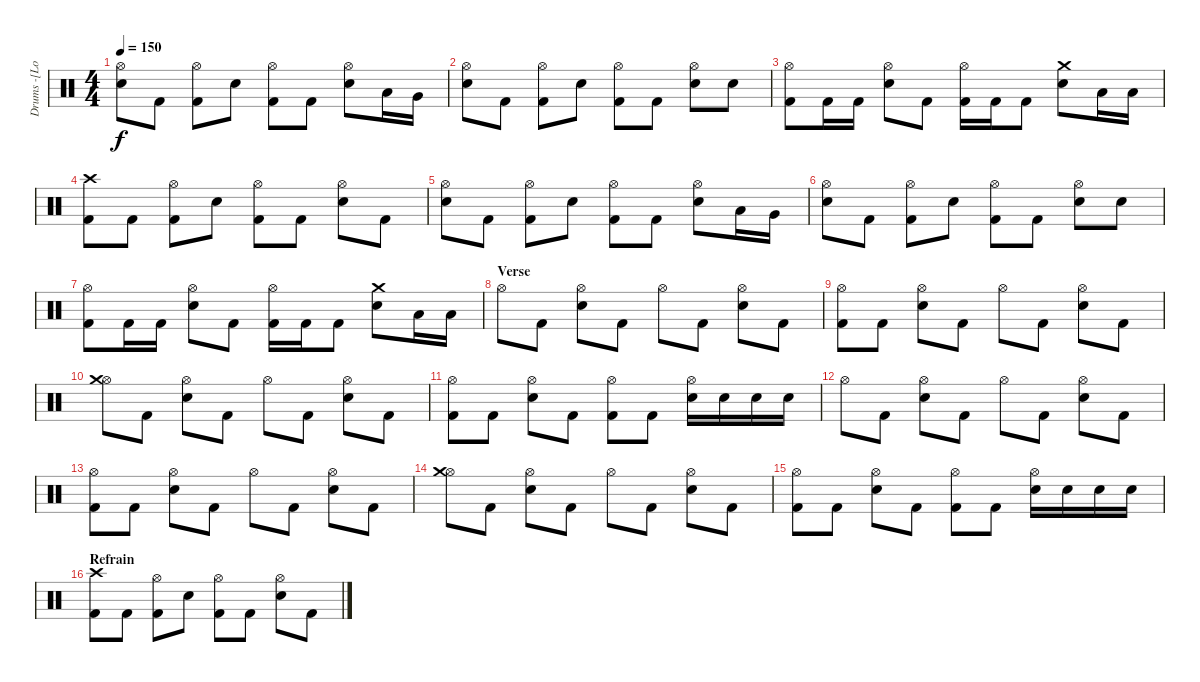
\track ("Drums -[Lorenz]-" "Drums -[Lo") {instrument percussion}
\staff {score}
\articulation defaults
\ts (4 4)
\tempo 150
\clef neutral
\ks c
("Hi-Hat (open)" "Electric Snare (hit)").8{dy f} "Kick (hit) 2".8 ("Hi-Hat (open)" "Kick (hit) 2").8 "Electric Snare (hit)".8 ("Hi-Hat (open)" "Kick (hit) 2").8 "Kick (hit) 2".8 ("Hi-Hat (open)" "Electric Snare (hit)").8 "Low Tom (hit)".16 "Very Low Tom (hit)".16 |
("Hi-Hat (open)" "Electric Snare (hit)").8 "Kick (hit) 2".8 ("Hi-Hat (open)" "Kick (hit) 2").8 "Electric Snare (hit)".8 ("Hi-Hat (open)" "Kick (hit) 2").8 "Kick (hit) 2".8 ("Hi-Hat (open)" "Electric Snare (hit)").8 "Electric Snare (hit)".8 |
("Hi-Hat (open)" "Kick (hit) 2").8 "Kick (hit) 2".16 "Kick (hit) 2".16 ("Hi-Hat (open)" "Electric Snare (hit)").8 "Kick (hit) 2".8 ("Hi-Hat (open)" "Kick (hit) 2").16 "Kick (hit) 2".16 "Kick (hit) 2".8 ("Crash medium (hit)" "Electric Snare (hit)").8 "Low Tom (hit)".16 "Low Tom (hit)".16 |
("Crash high (hit)" "Kick (hit) 2").8 "Kick (hit) 2".8 ("Hi-Hat (open)" "Kick (hit) 2").8 "Electric Snare (hit)".8 ("Hi-Hat (open)" "Kick (hit) 2").8 "Kick (hit) 2".8 ("Hi-Hat (open)" "Electric Snare (hit)").8 "Kick (hit) 2".8 |
("Hi-Hat (open)" "Electric Snare (hit)").8 "Kick (hit) 2".8 ("Hi-Hat (open)" "Kick (hit) 2").8 "Electric Snare (hit)".8 ("Hi-Hat (open)" "Kick (hit) 2").8 "Kick (hit) 2".8 ("Hi-Hat (open)" "Electric Snare (hit)").8 "Low Tom (hit)".16 "Very Low Tom (hit)".16 |
("Hi-Hat (open)" "Electric Snare (hit)").8 "Kick (hit) 2".8 ("Hi-Hat (open)" "Kick (hit) 2").8 "Electric Snare (hit)".8 ("Hi-Hat (open)" "Kick (hit) 2").8 "Kick (hit) 2".8 ("Hi-Hat (open)" "Electric Snare (hit)").8 "Electric Snare (hit)".8 |
("Hi-Hat (open)" "Kick (hit) 2").8 "Kick (hit) 2".16 "Kick (hit) 2".16 ("Hi-Hat (open)" "Electric Snare (hit)").8 "Kick (hit) 2".8 ("Hi-Hat (open)" "Kick (hit) 2").16 "Kick (hit) 2".16 "Kick (hit) 2".8 ("Crash medium (hit)" "Electric Snare (hit)").8 "Low Tom (hit)".16 "Low Tom (hit)".16 |
\section ("" "Verse")
"Hi-Hat (open)".8 "Kick (hit) 2".8 ("Hi-Hat (open)" "Electric Snare (hit)").8 "Kick (hit) 2".8 "Hi-Hat (open)".8 "Kick (hit) 2".8 ("Hi-Hat (open)" "Electric Snare (hit)").8 "Kick (hit) 2".8 |
("Hi-Hat (open)" "Kick (hit) 2").8 "Kick (hit) 2".8 ("Hi-Hat (open)" "Electric Snare (hit)").8 "Kick (hit) 2".8 "Hi-Hat (open)".8 "Kick (hit) 2".8 ("Hi-Hat (open)" "Electric Snare (hit)").8 "Kick (hit) 2".8 |
("Hi-Hat (open)" "Crash medium (hit)").8 "Kick (hit) 2".8 ("Hi-Hat (open)" "Electric Snare (hit)").8 "Kick (hit) 2".8 "Hi-Hat (open)".8 "Kick (hit) 2".8 ("Hi-Hat (open)" "Electric Snare (hit)").8 "Kick (hit) 2".8 |
("Hi-Hat (open)" "Kick (hit) 2").8 "Kick (hit) 2".8 ("Hi-Hat (open)" "Electric Snare (hit)").8 "Kick (hit) 2".8 ("Hi-Hat (open)" "Kick (hit) 2").8 "Kick (hit) 2".8 ("Hi-Hat (open)" "Electric Snare (hit)").16 "Electric Snare (hit)".16 "Electric Snare (hit)".16 "Electric Snare (hit)".16 |
"Hi-Hat (open)".8 "Kick (hit) 2".8 ("Hi-Hat (open)" "Electric Snare (hit)").8 "Kick (hit) 2".8 "Hi-Hat (open)".8 "Kick (hit) 2".8 ("Hi-Hat (open)" "Electric Snare (hit)").8 "Kick (hit) 2".8 |
("Hi-Hat (open)" "Kick (hit) 2").8 "Kick (hit) 2".8 ("Hi-Hat (open)" "Electric Snare (hit)").8 "Kick (hit) 2".8 "Hi-Hat (open)".8 "Kick (hit) 2".8 ("Hi-Hat (open)" "Electric Snare (hit)").8 "Kick (hit) 2".8 |
("Hi-Hat (open)" "Crash medium (hit)").8 "Kick (hit) 2".8 ("Hi-Hat (open)" "Electric Snare (hit)").8 "Kick (hit) 2".8 "Hi-Hat (open)".8 "Kick (hit) 2".8 ("Hi-Hat (open)" "Electric Snare (hit)").8 "Kick (hit) 2".8 |
("Hi-Hat (open)" "Kick (hit) 2").8 "Kick (hit) 2".8 ("Hi-Hat (open)" "Electric Snare (hit)").8 "Kick (hit) 2".8 ("Hi-Hat (open)" "Kick (hit) 2").8 "Kick (hit) 2".8 ("Hi-Hat (open)" "Electric Snare (hit)").16 "Electric Snare (hit)".16 "Electric Snare (hit)".16 "Electric Snare (hit)".16 |
\section ("" "Refrain")
("Crash high (hit)" "Kick (hit) 2").8 "Kick (hit) 2".8 ("Hi-Hat (open)" "Kick (hit) 2").8 "Electric Snare (hit)".8 ("Hi-Hat (open)" "Kick (hit) 2").8 "Kick (hit) 2".8 ("Hi-Hat (open)" "Electric Snare (hit)").8 "Kick (hit) 2".8
